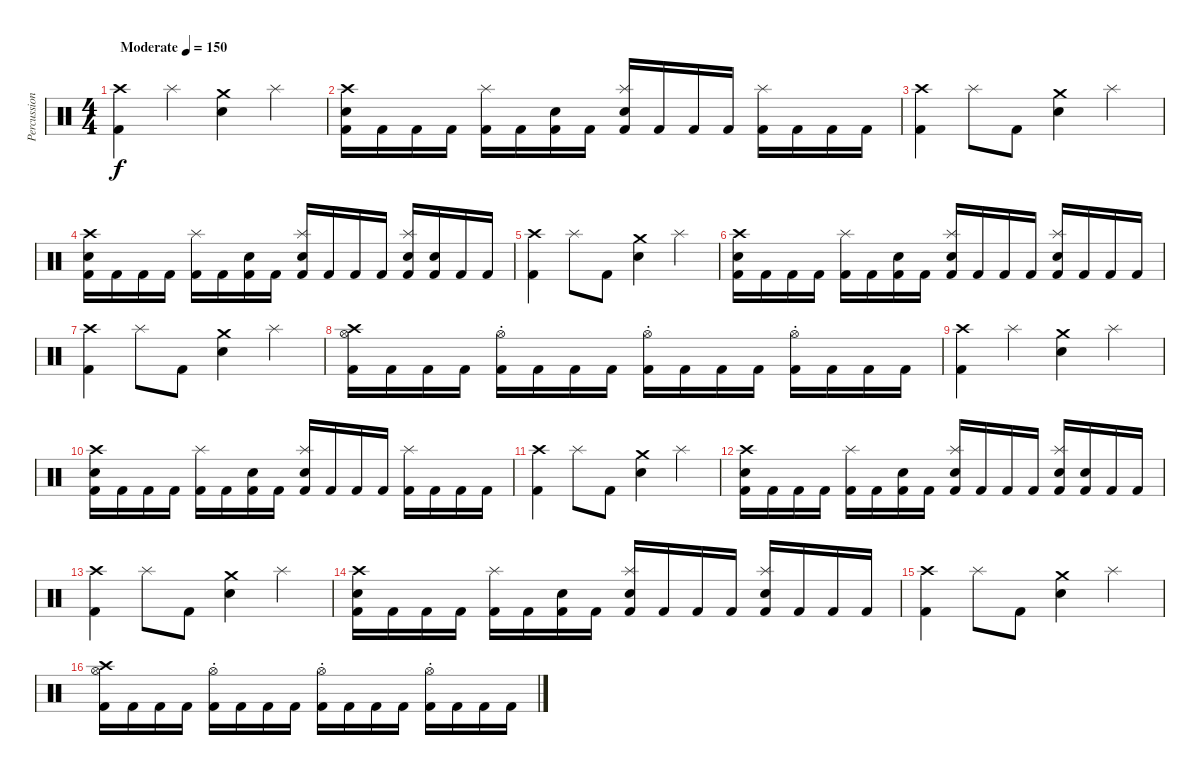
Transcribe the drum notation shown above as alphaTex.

\track ("Percussion" "Percussion") {instrument percussion}
\staff {score}
\articulation defaults
\ts (4 4)
\tempo (150 "Moderate")
\clef neutral
\ks c
("Crash high (hit)" "Kick (hit) 2").4{dy f} "Splash (hit)".4 ("Crash medium (hit)" "Electric Snare (hit)").4 "Splash (hit)".4 |
("Crash high (hit)" "Electric Snare (hit)" "Kick (hit) 2").16 "Kick (hit) 2".16 "Kick (hit) 2".16 "Kick (hit) 2".16 ("Splash (hit)" "Kick (hit) 2").16 "Kick (hit) 2".16 ("Electric Snare (hit)" "Kick (hit) 2").16 "Kick (hit) 2".16 ("Splash (hit)" "Electric Snare (hit)" "Kick (hit) 2").16 "Kick (hit) 2".16 "Kick (hit) 2".16 "Kick (hit) 2".16 ("Splash (hit)" "Kick (hit) 2").16 "Kick (hit) 2".16 "Kick (hit) 2".16 "Kick (hit) 2".16 |
("Crash high (hit)" "Kick (hit) 2").4 "Splash (hit)".8 "Kick (hit) 2".8 ("Crash medium (hit)" "Electric Snare (hit)").4 "Splash (hit)".4 |
("Crash high (hit)" "Electric Snare (hit)" "Kick (hit) 2").16 "Kick (hit) 2".16 "Kick (hit) 2".16 "Kick (hit) 2".16 ("Splash (hit)" "Kick (hit) 2").16 "Kick (hit) 2".16 ("Electric Snare (hit)" "Kick (hit) 2").16 "Kick (hit) 2".16 ("Splash (hit)" "Electric Snare (hit)" "Kick (hit) 2").16 "Kick (hit) 2".16 "Kick (hit) 2".16 "Kick (hit) 2".16 ("Splash (hit)" "Electric Snare (hit)" "Kick (hit) 2").16 ("Electric Snare (hit)" "Kick (hit) 2").16 "Kick (hit) 2".16 "Kick (hit) 2".16 |
("Crash high (hit)" "Kick (hit) 2").4 "Splash (hit)".8 "Kick (hit) 2".8 ("Crash medium (hit)" "Electric Snare (hit)").4 "Splash (hit)".4 |
("Crash high (hit)" "Electric Snare (hit)" "Kick (hit) 2").16 "Kick (hit) 2".16 "Kick (hit) 2".16 "Kick (hit) 2".16 ("Splash (hit)" "Kick (hit) 2").16 "Kick (hit) 2".16 ("Electric Snare (hit)" "Kick (hit) 2").16 "Kick (hit) 2".16 ("Splash (hit)" "Electric Snare (hit)" "Kick (hit) 2").16 "Kick (hit) 2".16 "Kick (hit) 2".16 "Kick (hit) 2".16 ("Splash (hit)" "Electric Snare (hit)" "Kick (hit) 2").16 "Kick (hit) 2".16 "Kick (hit) 2".16 "Kick (hit) 2".16 |
("Crash high (hit)" "Kick (hit) 2").4 "Splash (hit)".8 "Kick (hit) 2".8 ("Crash medium (hit)" "Electric Snare (hit)").4 "Splash (hit)".4 |
("Crash high (hit)" "Hi-Hat (open)" "Kick (hit) 2").16 "Kick (hit) 2".16 "Kick (hit) 2".16 "Kick (hit) 2".16 ("Hi-Hat (open)"{st} "Kick (hit) 2").16 "Kick (hit) 2".16 "Kick (hit) 2".16 "Kick (hit) 2".16 ("Hi-Hat (open)"{st} "Kick (hit) 2").16 "Kick (hit) 2".16 "Kick (hit) 2".16 "Kick (hit) 2".16 ("Hi-Hat (open)"{st} "Kick (hit) 2").16 "Kick (hit) 2".16 "Kick (hit) 2".16 "Kick (hit) 2".16 |
("Crash high (hit)" "Kick (hit) 2").4 "Splash (hit)".4 ("Crash medium (hit)" "Electric Snare (hit)").4 "Splash (hit)".4 |
("Crash high (hit)" "Electric Snare (hit)" "Kick (hit) 2").16 "Kick (hit) 2".16 "Kick (hit) 2".16 "Kick (hit) 2".16 ("Splash (hit)" "Kick (hit) 2").16 "Kick (hit) 2".16 ("Electric Snare (hit)" "Kick (hit) 2").16 "Kick (hit) 2".16 ("Splash (hit)" "Electric Snare (hit)" "Kick (hit) 2").16 "Kick (hit) 2".16 "Kick (hit) 2".16 "Kick (hit) 2".16 ("Splash (hit)" "Kick (hit) 2").16 "Kick (hit) 2".16 "Kick (hit) 2".16 "Kick (hit) 2".16 |
("Crash high (hit)" "Kick (hit) 2").4 "Splash (hit)".8 "Kick (hit) 2".8 ("Crash medium (hit)" "Electric Snare (hit)").4 "Splash (hit)".4 |
("Crash high (hit)" "Electric Snare (hit)" "Kick (hit) 2").16 "Kick (hit) 2".16 "Kick (hit) 2".16 "Kick (hit) 2".16 ("Splash (hit)" "Kick (hit) 2").16 "Kick (hit) 2".16 ("Electric Snare (hit)" "Kick (hit) 2").16 "Kick (hit) 2".16 ("Splash (hit)" "Electric Snare (hit)" "Kick (hit) 2").16 "Kick (hit) 2".16 "Kick (hit) 2".16 "Kick (hit) 2".16 ("Splash (hit)" "Electric Snare (hit)" "Kick (hit) 2").16 ("Electric Snare (hit)" "Kick (hit) 2").16 "Kick (hit) 2".16 "Kick (hit) 2".16 |
("Crash high (hit)" "Kick (hit) 2").4 "Splash (hit)".8 "Kick (hit) 2".8 ("Crash medium (hit)" "Electric Snare (hit)").4 "Splash (hit)".4 |
("Crash high (hit)" "Electric Snare (hit)" "Kick (hit) 2").16 "Kick (hit) 2".16 "Kick (hit) 2".16 "Kick (hit) 2".16 ("Splash (hit)" "Kick (hit) 2").16 "Kick (hit) 2".16 ("Electric Snare (hit)" "Kick (hit) 2").16 "Kick (hit) 2".16 ("Splash (hit)" "Electric Snare (hit)" "Kick (hit) 2").16 "Kick (hit) 2".16 "Kick (hit) 2".16 "Kick (hit) 2".16 ("Splash (hit)" "Electric Snare (hit)" "Kick (hit) 2").16 "Kick (hit) 2".16 "Kick (hit) 2".16 "Kick (hit) 2".16 |
("Crash high (hit)" "Kick (hit) 2").4 "Splash (hit)".8 "Kick (hit) 2".8 ("Crash medium (hit)" "Electric Snare (hit)").4 "Splash (hit)".4 |
("Crash high (hit)" "Hi-Hat (open)" "Kick (hit) 2").16 "Kick (hit) 2".16 "Kick (hit) 2".16 "Kick (hit) 2".16 ("Hi-Hat (open)"{st} "Kick (hit) 2").16 "Kick (hit) 2".16 "Kick (hit) 2".16 "Kick (hit) 2".16 ("Hi-Hat (open)"{st} "Kick (hit) 2").16 "Kick (hit) 2".16 "Kick (hit) 2".16 "Kick (hit) 2".16 ("Hi-Hat (open)"{st} "Kick (hit) 2").16 "Kick (hit) 2".16 "Kick (hit) 2".16 "Kick (hit) 2".16
